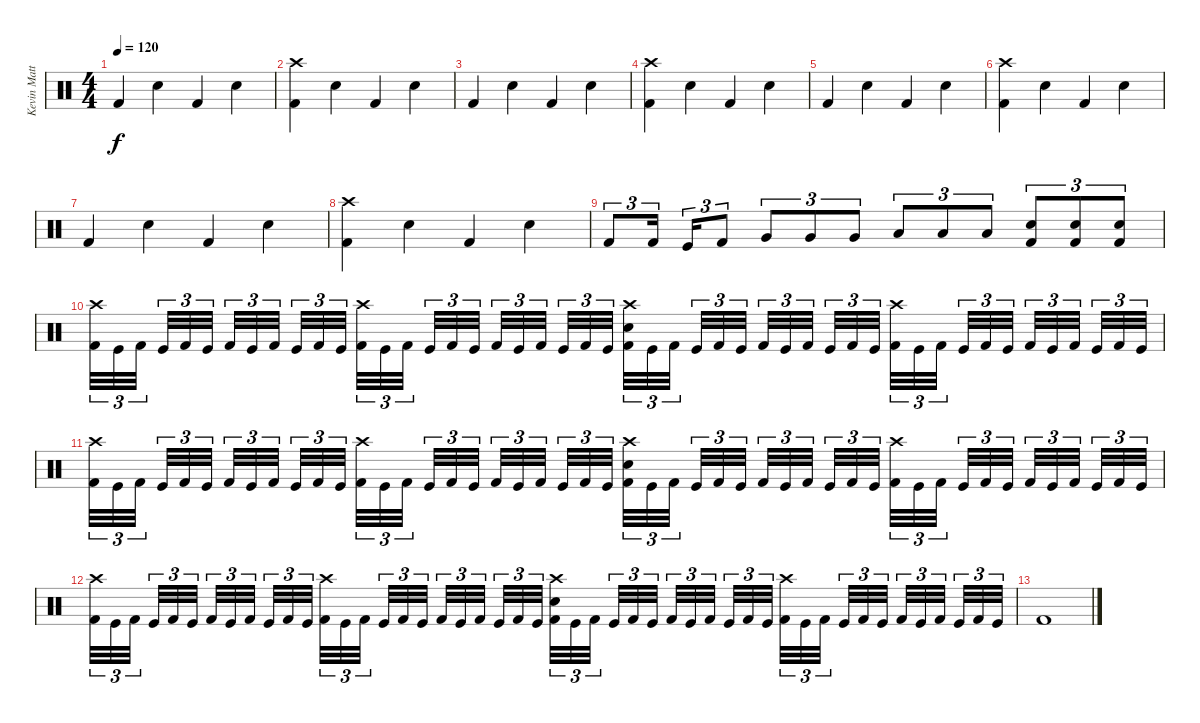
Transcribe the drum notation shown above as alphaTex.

\track ("Kevin Matthews (Drums)" "Kevin Matt") {instrument percussion}
\staff {score}
\articulation defaults
\ts (4 4)
\tempo 120
\clef neutral
\ks c "Kick (hit) 2".4{dy f} "Electric Snare (hit)".4 "Kick (hit) 2".4 "Electric Snare (hit)".4
|
("Crash high (hit)" "Kick (hit) 2").4 "Electric Snare (hit)".4 "Kick (hit) 2".4 "Electric Snare (hit)".4 |
"Kick (hit) 2".4 "Electric Snare (hit)".4 "Kick (hit) 2".4 "Electric Snare (hit)".4 |
("Crash high (hit)" "Kick (hit) 2").4 "Electric Snare (hit)".4 "Kick (hit) 2".4 "Electric Snare (hit)".4 |
"Kick (hit) 2".4 "Electric Snare (hit)".4 "Kick (hit) 2".4 "Electric Snare (hit)".4 |
("Crash high (hit)" "Kick (hit) 2").4 "Electric Snare (hit)".4 "Kick (hit) 2".4 "Electric Snare (hit)".4 |
"Kick (hit) 2".4 "Electric Snare (hit)".4 "Kick (hit) 2".4 "Electric Snare (hit)".4 |
("Crash high (hit)" "Kick (hit) 2").4 "Electric Snare (hit)".4 "Kick (hit) 2".4 "Electric Snare (hit)".4 |
"Kick (hit) 2".8{tu (3 2)} "Kick (hit) 2".16{tu (3 2) beam splitsecondary} "Kick (hit)".16{tu (3 2)} "Kick (hit) 2".8{tu (3 2)} "Very Low Tom (hit)".8{tu (3 2)} "Very Low Tom (hit)".8{tu (3 2)} "Very Low Tom (hit)".8{tu (3 2)} "Low Floor Tom (hit)".8{tu (3 2)} "Low Floor Tom (hit)".8{tu (3 2)} "Low Floor Tom (hit)".8{tu (3 2)} ("Electric Snare (hit)" "Kick (hit) 2").8{tu (3 2)} ("Electric Snare (hit)" "Kick (hit) 2").8{tu (3 2)} ("Electric Snare (hit)" "Kick (hit) 2").8{tu (3 2)} |
("Crash high (hit)" "Kick (hit) 2").32{tu (3 2)} "Kick (hit)".32{tu (3 2)} "Kick (hit) 2".32{tu (3 2) beam splitsecondary} "Kick (hit)".32{tu (3 2)} "Kick (hit) 2".32{tu (3 2)} "Kick (hit)".32{tu (3 2) beam splitsecondary} "Kick (hit) 2".32{tu (3 2)} "Kick (hit)".32{tu (3 2)} "Kick (hit) 2".32{tu (3 2) beam splitsecondary} "Kick (hit)".32{tu (3 2)} "Kick (hit) 2".32{tu (3 2)} "Kick (hit)".32{tu (3 2)} ("Crash high (hit)" "Kick (hit) 2").32{tu (3 2)} "Kick (hit)".32{tu (3 2)} "Kick (hit) 2".32{tu (3 2) beam splitsecondary} "Kick (hit)".32{tu (3 2)} "Kick (hit) 2".32{tu (3 2)} "Kick (hit)".32{tu (3 2) beam splitsecondary} "Kick (hit) 2".32{tu (3 2)} "Kick (hit)".32{tu (3 2)} "Kick (hit) 2".32{tu (3 2) beam splitsecondary} "Kick (hit)".32{tu (3 2)} "Kick (hit) 2".32{tu (3 2)} "Kick (hit)".32{tu (3 2)} ("Crash high (hit)" "Electric Snare (hit)" "Kick (hit) 2").32{tu (3 2)} "Kick (hit)".32{tu (3 2)} "Kick (hit) 2".32{tu (3 2) beam splitsecondary} "Kick (hit)".32{tu (3 2)} "Kick (hit) 2".32{tu (3 2)} "Kick (hit)".32{tu (3 2) beam splitsecondary} "Kick (hit) 2".32{tu (3 2)} "Kick (hit)".32{tu (3 2)} "Kick (hit) 2".32{tu (3 2) beam splitsecondary} "Kick (hit)".32{tu (3 2)} "Kick (hit) 2".32{tu (3 2)} "Kick (hit)".32{tu (3 2)} ("Crash high (hit)" "Kick (hit) 2").32{tu (3 2)} "Kick (hit)".32{tu (3 2)} "Kick (hit) 2".32{tu (3 2) beam splitsecondary} "Kick (hit)".32{tu (3 2)} "Kick (hit) 2".32{tu (3 2)} "Kick (hit)".32{tu (3 2) beam splitsecondary} "Kick (hit) 2".32{tu (3 2)} "Kick (hit)".32{tu (3 2)} "Kick (hit) 2".32{tu (3 2) beam splitsecondary} "Kick (hit)".32{tu (3 2)} "Kick (hit) 2".32{tu (3 2)} "Kick (hit)".32{tu (3 2)} |
("Crash high (hit)" "Kick (hit) 2").32{tu (3 2)} "Kick (hit)".32{tu (3 2)} "Kick (hit) 2".32{tu (3 2) beam splitsecondary} "Kick (hit)".32{tu (3 2)} "Kick (hit) 2".32{tu (3 2)} "Kick (hit)".32{tu (3 2) beam splitsecondary} "Kick (hit) 2".32{tu (3 2)} "Kick (hit)".32{tu (3 2)} "Kick (hit) 2".32{tu (3 2) beam splitsecondary} "Kick (hit)".32{tu (3 2)} "Kick (hit) 2".32{tu (3 2)} "Kick (hit)".32{tu (3 2)} ("Crash high (hit)" "Kick (hit) 2").32{tu (3 2)} "Kick (hit)".32{tu (3 2)} "Kick (hit) 2".32{tu (3 2) beam splitsecondary} "Kick (hit)".32{tu (3 2)} "Kick (hit) 2".32{tu (3 2)} "Kick (hit)".32{tu (3 2) beam splitsecondary} "Kick (hit) 2".32{tu (3 2)} "Kick (hit)".32{tu (3 2)} "Kick (hit) 2".32{tu (3 2) beam splitsecondary} "Kick (hit)".32{tu (3 2)} "Kick (hit) 2".32{tu (3 2)} "Kick (hit)".32{tu (3 2)} ("Crash high (hit)" "Electric Snare (hit)" "Kick (hit) 2").32{tu (3 2)} "Kick (hit)".32{tu (3 2)} "Kick (hit) 2".32{tu (3 2) beam splitsecondary} "Kick (hit)".32{tu (3 2)} "Kick (hit) 2".32{tu (3 2)} "Kick (hit)".32{tu (3 2) beam splitsecondary} "Kick (hit) 2".32{tu (3 2)} "Kick (hit)".32{tu (3 2)} "Kick (hit) 2".32{tu (3 2) beam splitsecondary} "Kick (hit)".32{tu (3 2)} "Kick (hit) 2".32{tu (3 2)} "Kick (hit)".32{tu (3 2)} ("Crash high (hit)" "Kick (hit) 2").32{tu (3 2)} "Kick (hit)".32{tu (3 2)} "Kick (hit) 2".32{tu (3 2) beam splitsecondary} "Kick (hit)".32{tu (3 2)} "Kick (hit) 2".32{tu (3 2)} "Kick (hit)".32{tu (3 2) beam splitsecondary} "Kick (hit) 2".32{tu (3 2)} "Kick (hit)".32{tu (3 2)} "Kick (hit) 2".32{tu (3 2) beam splitsecondary} "Kick (hit)".32{tu (3 2)} "Kick (hit) 2".32{tu (3 2)} "Kick (hit)".32{tu (3 2)} |
("Crash high (hit)" "Kick (hit) 2").32{tu (3 2)} "Kick (hit)".32{tu (3 2)} "Kick (hit) 2".32{tu (3 2) beam splitsecondary} "Kick (hit)".32{tu (3 2)} "Kick (hit) 2".32{tu (3 2)} "Kick (hit)".32{tu (3 2) beam splitsecondary} "Kick (hit) 2".32{tu (3 2)} "Kick (hit)".32{tu (3 2)} "Kick (hit) 2".32{tu (3 2) beam splitsecondary} "Kick (hit)".32{tu (3 2)} "Kick (hit) 2".32{tu (3 2)} "Kick (hit)".32{tu (3 2)} ("Crash high (hit)" "Kick (hit) 2").32{tu (3 2)} "Kick (hit)".32{tu (3 2)} "Kick (hit) 2".32{tu (3 2) beam splitsecondary} "Kick (hit)".32{tu (3 2)} "Kick (hit) 2".32{tu (3 2)} "Kick (hit)".32{tu (3 2) beam splitsecondary} "Kick (hit) 2".32{tu (3 2)} "Kick (hit)".32{tu (3 2)} "Kick (hit) 2".32{tu (3 2) beam splitsecondary} "Kick (hit)".32{tu (3 2)} "Kick (hit) 2".32{tu (3 2)} "Kick (hit)".32{tu (3 2)} ("Crash high (hit)" "Electric Snare (hit)" "Kick (hit) 2").32{tu (3 2)} "Kick (hit)".32{tu (3 2)} "Kick (hit) 2".32{tu (3 2) beam splitsecondary} "Kick (hit)".32{tu (3 2)} "Kick (hit) 2".32{tu (3 2)} "Kick (hit)".32{tu (3 2) beam splitsecondary} "Kick (hit) 2".32{tu (3 2)} "Kick (hit)".32{tu (3 2)} "Kick (hit) 2".32{tu (3 2) beam splitsecondary} "Kick (hit)".32{tu (3 2)} "Kick (hit) 2".32{tu (3 2)} "Kick (hit)".32{tu (3 2)} ("Crash high (hit)" "Kick (hit) 2").32{tu (3 2)} "Kick (hit)".32{tu (3 2)} "Kick (hit) 2".32{tu (3 2) beam splitsecondary} "Kick (hit)".32{tu (3 2)} "Kick (hit) 2".32{tu (3 2)} "Kick (hit)".32{tu (3 2) beam splitsecondary} "Kick (hit) 2".32{tu (3 2)} "Kick (hit)".32{tu (3 2)} "Kick (hit) 2".32{tu (3 2) beam splitsecondary} "Kick (hit)".32{tu (3 2)} "Kick (hit) 2".32{tu (3 2)} "Kick (hit)".32{tu (3 2)} |
"Kick (hit) 2".1
